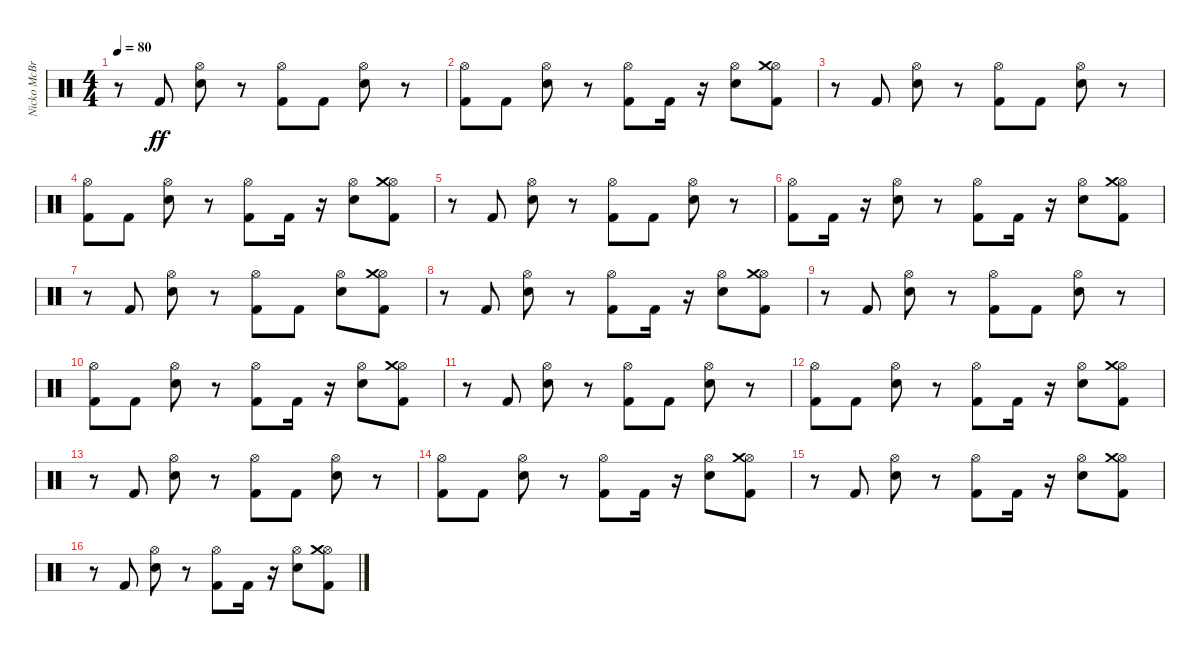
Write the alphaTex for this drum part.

\track ("Nicko McBrain" "Nicko McBr") {instrument percussion}
\staff {score}
\articulation defaults
\ts (4 4)
\tempo 80
\clef neutral
\ks c
r.8{dy ff} "Kick (hit) 2".8 ("Electric Snare (hit)" "Hi-Hat (open)").8 r.8 ("Kick (hit) 2" "Hi-Hat (open)").8 "Kick (hit) 2".8 ("Electric Snare (hit)" "Hi-Hat (open)").8 r.8 |
("Kick (hit) 2" "Hi-Hat (open)").8 "Kick (hit) 2".8 ("Electric Snare (hit)" "Hi-Hat (open)").8 r.8 ("Kick (hit) 2" "Hi-Hat (open)").8 "Kick (hit) 2".16 r.16 ("Electric Snare (hit)" "Hi-Hat (open)").8 ("Kick (hit) 2" "Hi-Hat (open)" "Crash medium (hit)").8 |
r.8 "Kick (hit) 2".8 ("Electric Snare (hit)" "Hi-Hat (open)").8 r.8 ("Kick (hit) 2" "Hi-Hat (open)").8 "Kick (hit) 2".8 ("Electric Snare (hit)" "Hi-Hat (open)").8 r.8 |
("Kick (hit) 2" "Hi-Hat (open)").8 "Kick (hit) 2".8 ("Electric Snare (hit)" "Hi-Hat (open)").8 r.8 ("Kick (hit) 2" "Hi-Hat (open)").8 "Kick (hit) 2".16 r.16 ("Electric Snare (hit)" "Hi-Hat (open)").8 ("Kick (hit) 2" "Hi-Hat (open)" "Crash medium (hit)").8 |
r.8 "Kick (hit) 2".8 ("Electric Snare (hit)" "Hi-Hat (open)").8 r.8 ("Kick (hit) 2" "Hi-Hat (open)").8 "Kick (hit) 2".8 ("Electric Snare (hit)" "Hi-Hat (open)").8 r.8 |
("Kick (hit) 2" "Hi-Hat (open)").8 "Kick (hit) 2".16 r.16 ("Electric Snare (hit)" "Hi-Hat (open)").8 r.8 ("Kick (hit) 2" "Hi-Hat (open)").8 "Kick (hit) 2".16 r.16 ("Electric Snare (hit)" "Hi-Hat (open)").8 ("Kick (hit) 2" "Hi-Hat (open)" "Crash medium (hit)").8 |
r.8 "Kick (hit) 2".8 ("Electric Snare (hit)" "Hi-Hat (open)").8 r.8 ("Kick (hit) 2" "Hi-Hat (open)").8 "Kick (hit) 2".8 ("Electric Snare (hit)" "Hi-Hat (open)").8 ("Kick (hit) 2" "Hi-Hat (open)" "Crash medium (hit)").8 |
r.8 "Kick (hit) 2".8 ("Electric Snare (hit)" "Hi-Hat (open)").8 r.8 ("Kick (hit) 2" "Hi-Hat (open)").8 "Kick (hit) 2".16 r.16 ("Electric Snare (hit)" "Hi-Hat (open)").8 ("Kick (hit) 2" "Hi-Hat (open)" "Crash medium (hit)").8 |
r.8 "Kick (hit) 2".8 ("Electric Snare (hit)" "Hi-Hat (open)").8 r.8 ("Kick (hit) 2" "Hi-Hat (open)").8 "Kick (hit) 2".8 ("Electric Snare (hit)" "Hi-Hat (open)").8 r.8 |
("Kick (hit) 2" "Hi-Hat (open)").8 "Kick (hit) 2".8 ("Electric Snare (hit)" "Hi-Hat (open)").8 r.8 ("Kick (hit) 2" "Hi-Hat (open)").8 "Kick (hit) 2".16 r.16 ("Electric Snare (hit)" "Hi-Hat (open)").8 ("Kick (hit) 2" "Hi-Hat (open)" "Crash medium (hit)").8 |
r.8 "Kick (hit) 2".8 ("Electric Snare (hit)" "Hi-Hat (open)").8 r.8 ("Kick (hit) 2" "Hi-Hat (open)").8 "Kick (hit) 2".8 ("Electric Snare (hit)" "Hi-Hat (open)").8 r.8 |
("Kick (hit) 2" "Hi-Hat (open)").8 "Kick (hit) 2".8 ("Electric Snare (hit)" "Hi-Hat (open)").8 r.8 ("Kick (hit) 2" "Hi-Hat (open)").8 "Kick (hit) 2".16 r.16 ("Electric Snare (hit)" "Hi-Hat (open)").8 ("Kick (hit) 2" "Hi-Hat (open)" "Crash medium (hit)").8 |
r.8 "Kick (hit) 2".8 ("Electric Snare (hit)" "Hi-Hat (open)").8 r.8 ("Kick (hit) 2" "Hi-Hat (open)").8 "Kick (hit) 2".8 ("Electric Snare (hit)" "Hi-Hat (open)").8 r.8 |
("Kick (hit) 2" "Hi-Hat (open)").8 "Kick (hit) 2".8 ("Electric Snare (hit)" "Hi-Hat (open)").8 r.8 ("Kick (hit) 2" "Hi-Hat (open)").8 "Kick (hit) 2".16 r.16 ("Electric Snare (hit)" "Hi-Hat (open)").8 ("Kick (hit) 2" "Hi-Hat (open)" "Crash medium (hit)").8 |
r.8 "Kick (hit) 2".8 ("Electric Snare (hit)" "Hi-Hat (open)").8 r.8 ("Kick (hit) 2" "Hi-Hat (open)").8 "Kick (hit) 2".16 r.16 ("Electric Snare (hit)" "Hi-Hat (open)").8 ("Kick (hit) 2" "Hi-Hat (open)" "Crash medium (hit)").8 |
r.8 "Kick (hit) 2".8 ("Electric Snare (hit)" "Hi-Hat (open)").8 r.8 ("Kick (hit) 2" "Hi-Hat (open)").8 "Kick (hit) 2".16 r.16 ("Electric Snare (hit)" "Hi-Hat (open)").8 ("Kick (hit) 2" "Hi-Hat (open)" "Crash medium (hit)").8
